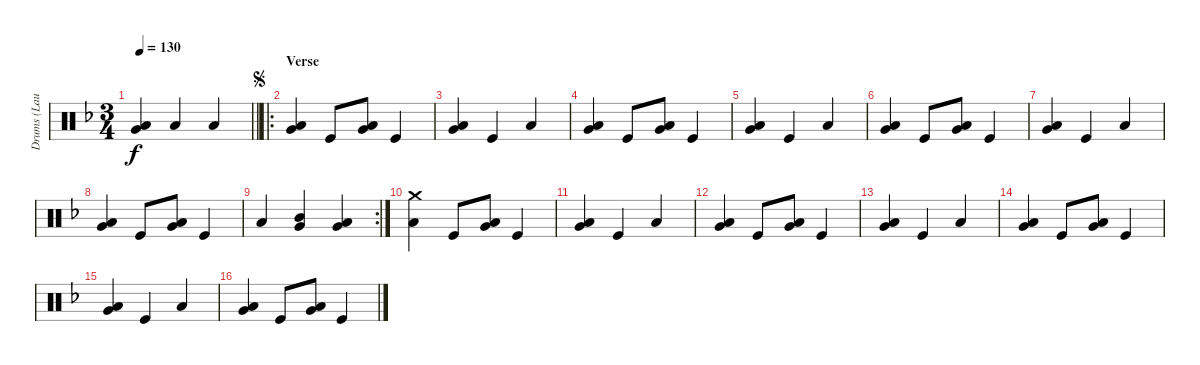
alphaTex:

\track ("Drums (Laura)" "Drums (Lau") {instrument percussion}
\staff {score}
\articulation defaults
\ts (3 4)
\tempo 130
\clef neutral
\barLineRight lightlight
\ks dminor
("Very Low Tom (hit)" "Low Floor Tom (hit)").4{dy f} "Low Floor Tom (hit)".4 "Low Floor Tom (hit)".4 |
\ro
\section ("" "Verse")
\jump segno
("Very Low Tom (hit)" "Low Floor Tom (hit)").4 "Kick (hit)".8 ("Very Low Tom (hit)" "Low Floor Tom (hit)").8 "Kick (hit)".4 |
("Very Low Tom (hit)" "Low Floor Tom (hit)").4 "Kick (hit)".4 "Low Floor Tom (hit)".4 |
("Very Low Tom (hit)" "Low Floor Tom (hit)").4 "Kick (hit)".8 ("Very Low Tom (hit)" "Low Floor Tom (hit)").8 "Kick (hit)".4 |
("Very Low Tom (hit)" "Low Floor Tom (hit)").4 "Kick (hit)".4 "Low Floor Tom (hit)".4 |
("Very Low Tom (hit)" "Low Floor Tom (hit)").4 "Kick (hit)".8 ("Very Low Tom (hit)" "Low Floor Tom (hit)").8 "Kick (hit)".4 |
("Very Low Tom (hit)" "Low Floor Tom (hit)").4 "Kick (hit)".4 "Low Floor Tom (hit)".4 |
("Very Low Tom (hit)" "Low Floor Tom (hit)").4 "Kick (hit)".8 ("Very Low Tom (hit)" "Low Floor Tom (hit)").8 "Kick (hit)".4 |
\rc 2 "Low Floor Tom (hit)".4
("Mid Tom (hit)" "Very Low Tom (hit)").4 ("Low Tom (hit)" "Very Low Tom (hit)").4 |
("Crash medium (hit)" "Low Floor Tom (hit)").4 "Kick (hit)".8 ("Very Low Tom (hit)" "Low Floor Tom (hit)").8 "Kick (hit)".4 |
("Very Low Tom (hit)" "Low Floor Tom (hit)").4 "Kick (hit)".4 "Low Floor Tom (hit)".4 |
("Very Low Tom (hit)" "Low Floor Tom (hit)").4 "Kick (hit)".8 ("Very Low Tom (hit)" "Low Floor Tom (hit)").8 "Kick (hit)".4 |
("Very Low Tom (hit)" "Low Floor Tom (hit)").4 "Kick (hit)".4 "Low Floor Tom (hit)".4 |
("Very Low Tom (hit)" "Low Floor Tom (hit)").4 "Kick (hit)".8 ("Very Low Tom (hit)" "Low Floor Tom (hit)").8 "Kick (hit)".4 |
("Very Low Tom (hit)" "Low Floor Tom (hit)").4 "Kick (hit)".4 "Low Floor Tom (hit)".4 |
("Very Low Tom (hit)" "Low Floor Tom (hit)").4 "Kick (hit)".8 ("Very Low Tom (hit)" "Low Floor Tom (hit)").8 "Kick (hit)".4
